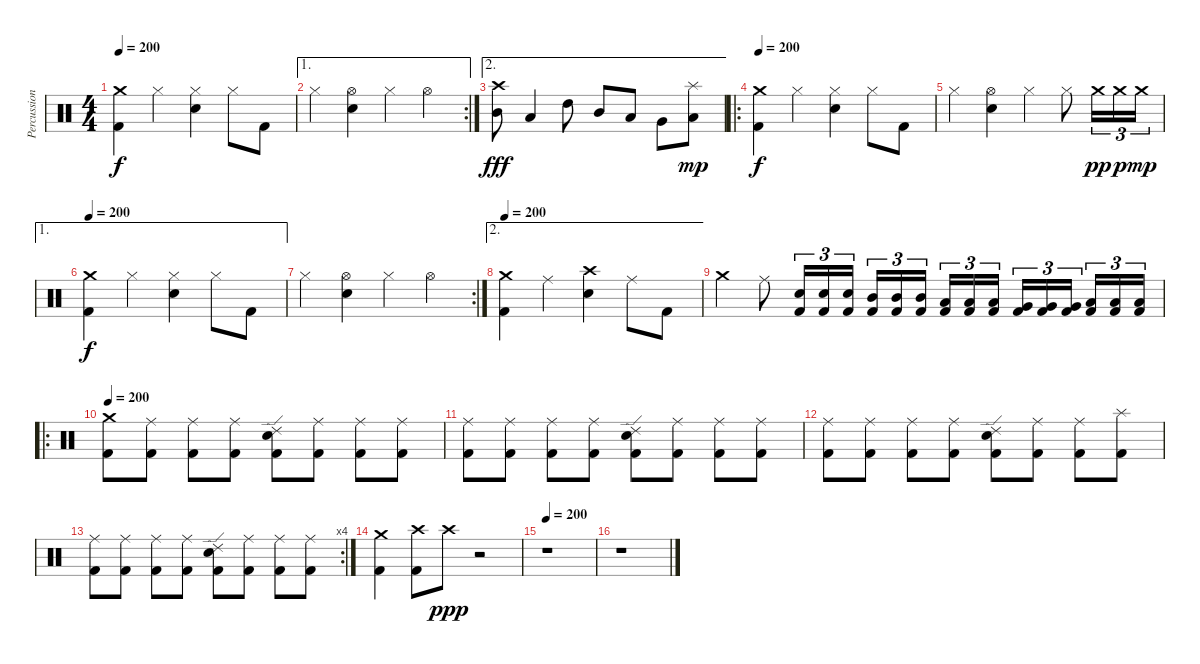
\track ("Percussions" "Percussion") {instrument percussion}
\staff {score}
\articulation defaults
\ts (4 4)
\tempo 200
\clef neutral
\ks c
("Crash medium (hit)" "Kick (hit) 2").4{dy f} "Hi-Hat (closed)".4 ("Hi-Hat (closed)" "Electric Snare (hit)").4 "Hi-Hat (closed)".8 "Kick (hit) 2".8 |
\ae 1
\rc 2 "Hi-Hat (closed)".4
("Hi-Hat (open)" "Electric Snare (hit)").4 "Hi-Hat (closed)".4 "Hi-Hat (open)".4 |
\ae 2
("Crash high (hit)" "Mid Tom (hit)").8{dy fff} "Low Tom (hit)".4 "High Tom (hit)".8 "Mid Tom (hit)".8 "Low Tom (hit)".8 "Very Low Tom (hit)".8 ("Splash (hit)" "Low Floor Tom (hit)").8{dy mp} |
\ro
\tempo 200
("Crash medium (hit)" "Kick (hit) 2").4{dy f} "Hi-Hat (closed)".4 ("Hi-Hat (closed)" "Electric Snare (hit)").4 "Hi-Hat (closed)".8 "Kick (hit) 2".8 |
"Hi-Hat (closed)".4 ("Hi-Hat (open)" "Electric Snare (hit)").4 "Hi-Hat (closed)".4 "Hi-Hat (closed)".8 "Crash medium (hit)".16{tu (3 2) dy pp} "Crash medium (hit)".16{tu (3 2) dy p} "Crash medium (hit)".16{tu (3 2) dy mp} |
\ae 1
\tempo 200
("Crash medium (hit)" "Kick (hit) 2").4{dy f} "Hi-Hat (closed)".4 ("Hi-Hat (closed)" "Electric Snare (hit)").4 "Hi-Hat (closed)".8 "Kick (hit) 2".8 |
\rc 2 "Hi-Hat (closed)".4
("Hi-Hat (open)" "Electric Snare (hit)").4 "Hi-Hat (closed)".4 "Hi-Hat (open)".4 |
\ae 2
\tempo 200
("Crash medium (hit)" "Kick (hit) 2").4 "Ride (middle)".4 ("Crash high (hit)" "Electric Snare (hit)").4 "Ride (middle)".8 "Kick (hit) 2".8 |
"Crash medium (hit)".4 "Ride (middle)".8 ("Electric Snare (hit)" "Kick (hit) 2").16{tu (3 2)} ("Electric Snare (hit)" "Kick (hit) 2").16{tu (3 2)} ("Electric Snare (hit)" "Kick (hit) 2").16{tu (3 2)} ("Mid Tom (hit)" "Kick (hit) 2").16{tu (3 2)} ("Mid Tom (hit)" "Kick (hit) 2").16{tu (3 2)} ("Mid Tom (hit)" "Kick (hit) 2").16{tu (3 2)} ("Low Tom (hit)" "Kick (hit) 2").16{tu (3 2)} ("Low Tom (hit)" "Kick (hit) 2").16{tu (3 2)} ("Low Tom (hit)" "Kick (hit) 2").16{tu (3 2)} ("Very Low Tom (hit)" "Kick (hit) 2").16{tu (3 2)} ("Very Low Tom (hit)" "Kick (hit) 2").16{tu (3 2)} ("Very Low Tom (hit)" "Kick (hit) 2").16{tu (3 2)} ("Low Floor Tom (hit)" "Kick (hit) 2").16{tu (3 2)} ("Low Floor Tom (hit)" "Kick (hit) 2").16{tu (3 2)} ("Low Floor Tom (hit)" "Kick (hit) 2").16{tu (3 2)} |
\ro
\tempo 200
("Crash medium (hit)" "Kick (hit) 2").8 ("Ride (middle)" "Kick (hit) 2").8 ("Ride (middle)" "Kick (hit) 2").8 ("Ride (middle)" "Kick (hit) 2").8 ("Ride (edge) 2" "Electric Snare (hit)" "Kick (hit) 2").8 ("Ride (middle)" "Kick (hit) 2").8 ("Ride (middle)" "Kick (hit) 2").8 ("Ride (middle)" "Kick (hit) 2").8 |
("Ride (middle)" "Kick (hit) 2").8 ("Ride (middle)" "Kick (hit) 2").8 ("Ride (middle)" "Kick (hit) 2").8 ("Ride (middle)" "Kick (hit) 2").8 ("Ride (edge) 2" "Electric Snare (hit)" "Kick (hit) 2").8 ("Ride (middle)" "Kick (hit) 2").8 ("Ride (middle)" "Kick (hit) 2").8 ("Ride (middle)" "Kick (hit) 2").8 |
("Ride (middle)" "Kick (hit) 2").8 ("Ride (middle)" "Kick (hit) 2").8 ("Ride (middle)" "Kick (hit) 2").8 ("Ride (middle)" "Kick (hit) 2").8 ("Ride (edge) 2" "Electric Snare (hit)" "Kick (hit) 2").8 ("Ride (middle)" "Kick (hit) 2").8 ("Ride (middle)" "Kick (hit) 2").8 ("Splash (hit)" "Kick (hit) 2").8 |
\rc 4
("Ride (middle)" "Kick (hit) 2").8 ("Ride (middle)" "Kick (hit) 2").8 ("Ride (middle)" "Kick (hit) 2").8 ("Ride (middle)" "Kick (hit) 2").8 ("Ride (edge) 2" "Electric Snare (hit)" "Kick (hit) 2").8 ("Ride (middle)" "Kick (hit) 2").8 ("Ride (middle)" "Kick (hit) 2").8 ("Ride (middle)" "Kick (hit) 2").8 |
("Crash medium (hit)" "Kick (hit) 2").4 ("Crash high (hit)" "Kick (hit) 2").8 "Crash high (hit)".8{dy ppp} r.2 |
\tempo 200
r.1 |
r.1
